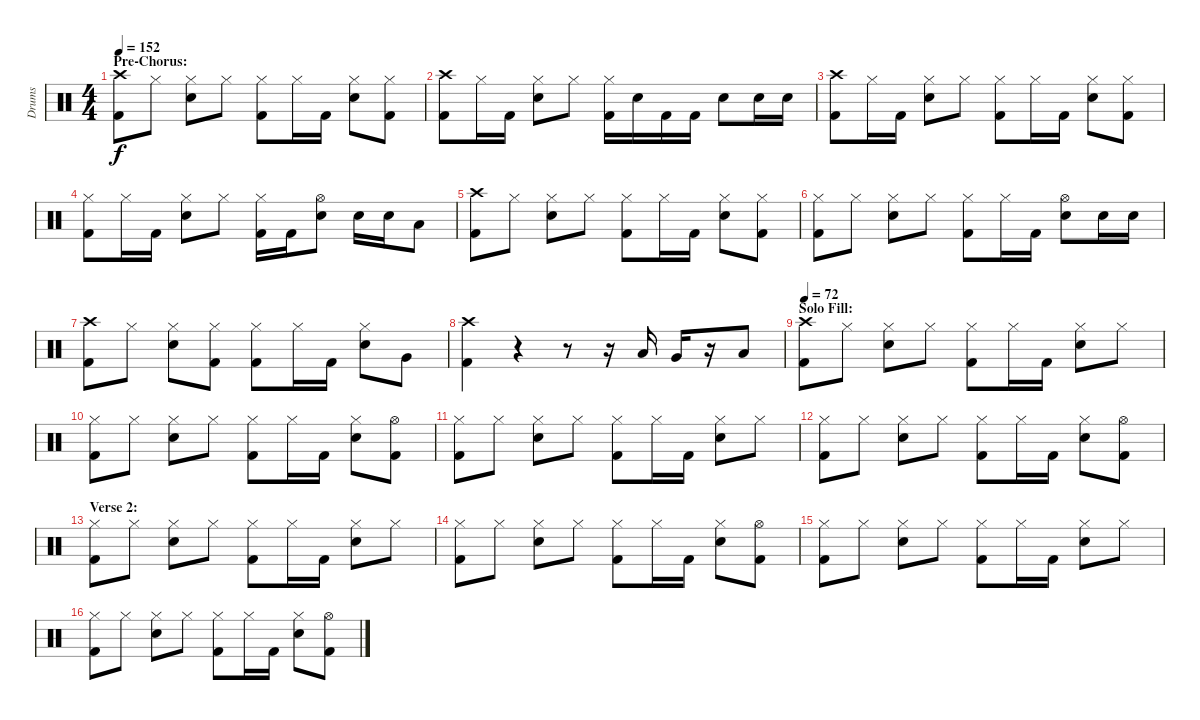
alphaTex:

\track ("Drums" "Drums") {instrument percussion}
\staff {score}
\articulation defaults
\ts (4 4)
\section ("" "Pre-Chorus:")
\tempo 152
\clef neutral
\ks c
("Crash high (hit)" "Kick (hit) 2").8{dy f} "Hi-Hat (closed)".8 ("Hi-Hat (closed)" "Electric Snare (hit)").8 "Hi-Hat (closed)".8 ("Hi-Hat (closed)" "Kick (hit) 2").8 "Hi-Hat (closed)".16 "Kick (hit) 2".16 ("Hi-Hat (closed)" "Electric Snare (hit)").8 ("Hi-Hat (closed)" "Kick (hit) 2").8 |
("Crash high (hit)" "Kick (hit) 2").8 "Hi-Hat (closed)".16 "Kick (hit) 2".16 ("Hi-Hat (closed)" "Electric Snare (hit)").8 "Hi-Hat (closed)".8 ("Hi-Hat (closed)" "Kick (hit) 2").16 "Electric Snare (hit)".16 "Kick (hit) 2".16 "Kick (hit) 2".16 "Electric Snare (hit)".8 "Electric Snare (hit)".16 "Electric Snare (hit)".16 |
("Crash high (hit)" "Kick (hit) 2").8 "Hi-Hat (closed)".16 "Kick (hit) 2".16 ("Hi-Hat (closed)" "Electric Snare (hit)").8 "Hi-Hat (closed)".8 ("Hi-Hat (closed)" "Kick (hit) 2").8 "Hi-Hat (closed)".16 "Kick (hit) 2".16 ("Hi-Hat (closed)" "Electric Snare (hit)").8 ("Hi-Hat (closed)" "Kick (hit) 2").8 |
("Hi-Hat (closed)" "Kick (hit) 2").8 "Hi-Hat (closed)".16 "Kick (hit) 2".16 ("Hi-Hat (closed)" "Electric Snare (hit)").8 "Hi-Hat (closed)".8 ("Hi-Hat (closed)" "Kick (hit) 2").16 "Kick (hit) 2".16 ("Hi-Hat (open)" "Electric Snare (hit)").8 "Electric Snare (hit)".16 "Electric Snare (hit)".16 "Low Tom (hit)".8 |
("Crash high (hit)" "Kick (hit) 2").8 "Hi-Hat (closed)".8 ("Hi-Hat (closed)" "Electric Snare (hit)").8 "Hi-Hat (closed)".8 ("Hi-Hat (closed)" "Kick (hit) 2").8 "Hi-Hat (closed)".16 "Kick (hit) 2".16 ("Hi-Hat (closed)" "Electric Snare (hit)").8 ("Hi-Hat (closed)" "Kick (hit) 2").8 |
("Hi-Hat (closed)" "Kick (hit) 2").8 "Hi-Hat (closed)".8 ("Hi-Hat (closed)" "Electric Snare (hit)").8 "Hi-Hat (closed)".8 ("Hi-Hat (closed)" "Kick (hit) 2").8 "Hi-Hat (closed)".16 "Kick (hit) 2".16 ("Hi-Hat (open)" "Electric Snare (hit)").8 "Electric Snare (hit)".16 "Electric Snare (hit)".16 |
("Crash high (hit)" "Kick (hit) 2").8 "Hi-Hat (closed)".8 ("Hi-Hat (closed)" "Electric Snare (hit)").8 ("Hi-Hat (closed)" "Kick (hit) 2").8 ("Hi-Hat (closed)" "Kick (hit) 2").8 "Hi-Hat (closed)".16 "Kick (hit) 2".16 ("Hi-Hat (closed)" "Electric Snare (hit)").8 "Very Low Tom (hit)".8 |
("Crash high (hit)" "Kick (hit) 2").4 r.4 r.8 r.16 "Low Tom (hit)".16 "Very Low Tom (hit)".16 r.16 "Low Floor Tom (hit)".8 |
\section ("" "Solo Fill:")
\tempo 72
("Crash high (hit)" "Kick (hit) 2").8 "Hi-Hat (closed)".8 ("Hi-Hat (closed)" "Electric Snare (hit)").8 "Hi-Hat (closed)".8 ("Hi-Hat (closed)" "Kick (hit) 2").8 "Hi-Hat (closed)".16 "Kick (hit) 2".16 ("Hi-Hat (closed)" "Electric Snare (hit)").8 "Hi-Hat (closed)".8 |
("Hi-Hat (closed)" "Kick (hit) 2").8 "Hi-Hat (closed)".8 ("Hi-Hat (closed)" "Electric Snare (hit)").8 "Hi-Hat (closed)".8 ("Hi-Hat (closed)" "Kick (hit) 2").8 "Hi-Hat (closed)".16 "Kick (hit) 2".16 ("Hi-Hat (closed)" "Electric Snare (hit)").8 ("Hi-Hat (open)" "Kick (hit) 2").8 |
("Hi-Hat (closed)" "Kick (hit) 2").8 "Hi-Hat (closed)".8 ("Hi-Hat (closed)" "Electric Snare (hit)").8 "Hi-Hat (closed)".8 ("Hi-Hat (closed)" "Kick (hit) 2").8 "Hi-Hat (closed)".16 "Kick (hit) 2".16 ("Hi-Hat (closed)" "Electric Snare (hit)").8 "Hi-Hat (closed)".8 |
("Hi-Hat (closed)" "Kick (hit) 2").8 "Hi-Hat (closed)".8 ("Hi-Hat (closed)" "Electric Snare (hit)").8 "Hi-Hat (closed)".8 ("Hi-Hat (closed)" "Kick (hit) 2").8 "Hi-Hat (closed)".16 "Kick (hit) 2".16 ("Hi-Hat (closed)" "Electric Snare (hit)").8 ("Hi-Hat (open)" "Kick (hit) 2").8 |
\section ("" "Verse 2:")
("Hi-Hat (closed)" "Kick (hit) 2").8 "Hi-Hat (closed)".8 ("Hi-Hat (closed)" "Electric Snare (hit)").8 "Hi-Hat (closed)".8 ("Hi-Hat (closed)" "Kick (hit) 2").8 "Hi-Hat (closed)".16 "Kick (hit) 2".16 ("Hi-Hat (closed)" "Electric Snare (hit)").8 "Hi-Hat (closed)".8 |
("Hi-Hat (closed)" "Kick (hit) 2").8 "Hi-Hat (closed)".8 ("Hi-Hat (closed)" "Electric Snare (hit)").8 "Hi-Hat (closed)".8 ("Hi-Hat (closed)" "Kick (hit) 2").8 "Hi-Hat (closed)".16 "Kick (hit) 2".16 ("Hi-Hat (closed)" "Electric Snare (hit)").8 ("Hi-Hat (open)" "Kick (hit) 2").8 |
("Hi-Hat (closed)" "Kick (hit) 2").8 "Hi-Hat (closed)".8 ("Hi-Hat (closed)" "Electric Snare (hit)").8 "Hi-Hat (closed)".8 ("Hi-Hat (closed)" "Kick (hit) 2").8 "Hi-Hat (closed)".16 "Kick (hit) 2".16 ("Hi-Hat (closed)" "Electric Snare (hit)").8 "Hi-Hat (closed)".8 |
("Hi-Hat (closed)" "Kick (hit) 2").8 "Hi-Hat (closed)".8 ("Hi-Hat (closed)" "Electric Snare (hit)").8 "Hi-Hat (closed)".8 ("Hi-Hat (closed)" "Kick (hit) 2").8 "Hi-Hat (closed)".16 "Kick (hit) 2".16 ("Hi-Hat (closed)" "Electric Snare (hit)").8 ("Hi-Hat (open)" "Kick (hit) 2").8
